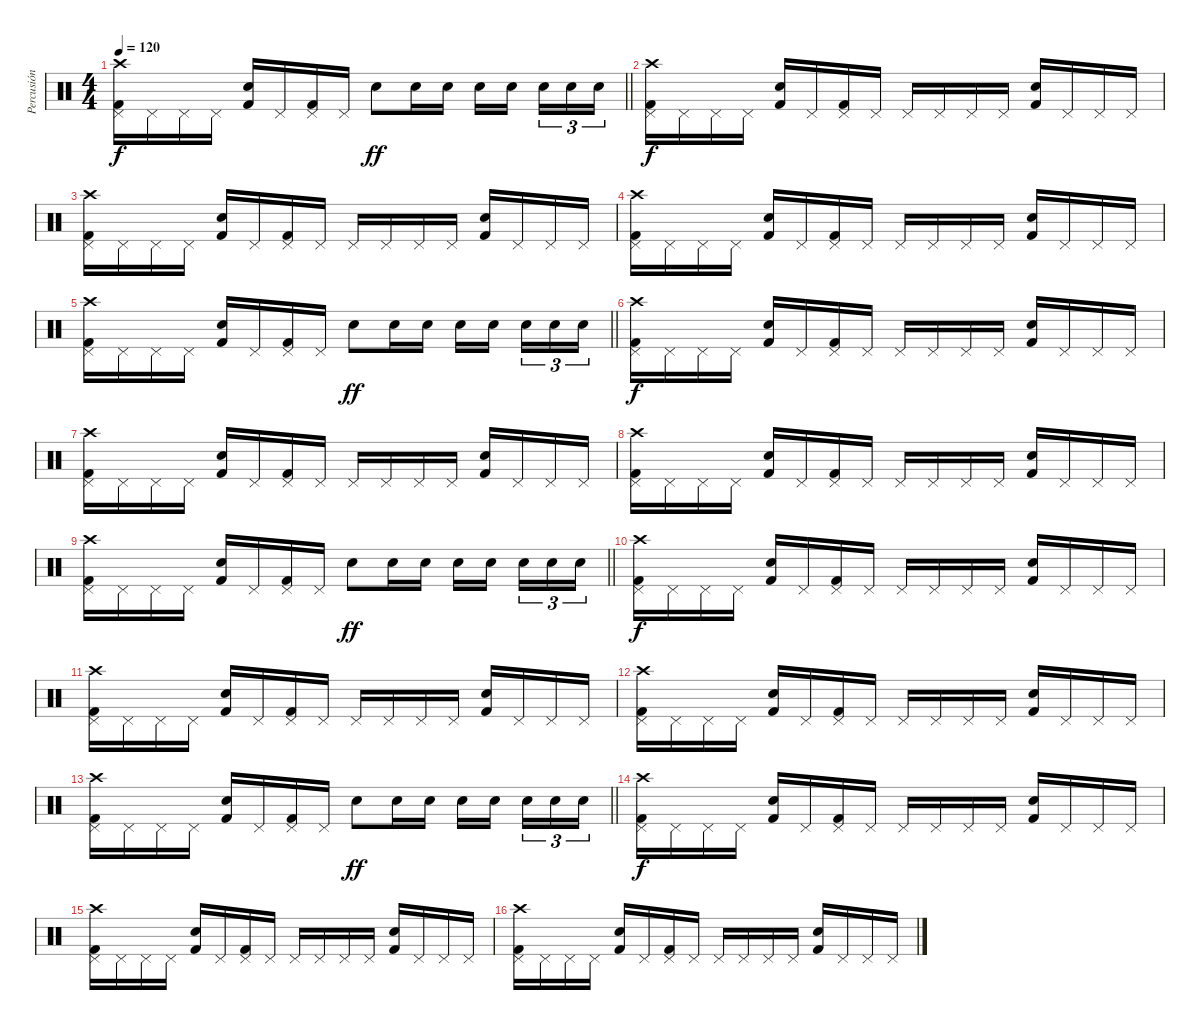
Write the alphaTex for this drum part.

\track ("Percusión" "Percusión") {instrument percussion}
\staff {score}
\articulation defaults
\ts (4 4)
\tempo 120
\clef neutral
\barLineRight lightlight
\ks c
("Pedal Hi-Hat (hit)" "Kick (hit) 2" "Crash high (hit)").16{dy f} "Pedal Hi-Hat (hit)".16 "Pedal Hi-Hat (hit)".16 "Pedal Hi-Hat (hit)".16 ("Snare (hit) 2" "Kick (hit) 2").16 "Pedal Hi-Hat (hit)".16 ("Pedal Hi-Hat (hit)" "Kick (hit) 2").16 "Pedal Hi-Hat (hit)".16 "Snare (hit) 2".8{dy ff} "Snare (hit) 2".16 "Snare (hit) 2".16 "Snare (hit) 2".16 "Snare (hit) 2".16{beam splitsecondary} "Snare (hit) 2".16{tu (3 2)} "Snare (hit) 2".16{tu (3 2)} "Snare (hit) 2".16{tu (3 2)} |
("Pedal Hi-Hat (hit)" "Kick (hit) 2" "Crash high (hit)").16{dy f} "Pedal Hi-Hat (hit)".16 "Pedal Hi-Hat (hit)".16 "Pedal Hi-Hat (hit)".16 ("Snare (hit) 2" "Kick (hit) 2").16 "Pedal Hi-Hat (hit)".16 ("Pedal Hi-Hat (hit)" "Kick (hit) 2").16 "Pedal Hi-Hat (hit)".16 "Pedal Hi-Hat (hit)".16 "Pedal Hi-Hat (hit)".16 "Pedal Hi-Hat (hit)".16 "Pedal Hi-Hat (hit)".16 ("Snare (hit) 2" "Kick (hit) 2").16 "Pedal Hi-Hat (hit)".16 "Pedal Hi-Hat (hit)".16 "Pedal Hi-Hat (hit)".16 |
("Pedal Hi-Hat (hit)" "Kick (hit) 2" "Crash high (hit)").16 "Pedal Hi-Hat (hit)".16 "Pedal Hi-Hat (hit)".16 "Pedal Hi-Hat (hit)".16 ("Snare (hit) 2" "Kick (hit) 2").16 "Pedal Hi-Hat (hit)".16 ("Pedal Hi-Hat (hit)" "Kick (hit) 2").16 "Pedal Hi-Hat (hit)".16 "Pedal Hi-Hat (hit)".16 "Pedal Hi-Hat (hit)".16 "Pedal Hi-Hat (hit)".16 "Pedal Hi-Hat (hit)".16 ("Snare (hit) 2" "Kick (hit) 2").16 "Pedal Hi-Hat (hit)".16 "Pedal Hi-Hat (hit)".16 "Pedal Hi-Hat (hit)".16 |
("Pedal Hi-Hat (hit)" "Kick (hit) 2" "Crash high (hit)").16 "Pedal Hi-Hat (hit)".16 "Pedal Hi-Hat (hit)".16 "Pedal Hi-Hat (hit)".16 ("Snare (hit) 2" "Kick (hit) 2").16 "Pedal Hi-Hat (hit)".16 ("Pedal Hi-Hat (hit)" "Kick (hit) 2").16 "Pedal Hi-Hat (hit)".16 "Pedal Hi-Hat (hit)".16 "Pedal Hi-Hat (hit)".16 "Pedal Hi-Hat (hit)".16 "Pedal Hi-Hat (hit)".16 ("Snare (hit) 2" "Kick (hit) 2").16 "Pedal Hi-Hat (hit)".16 "Pedal Hi-Hat (hit)".16 "Pedal Hi-Hat (hit)".16 |
\barLineRight lightlight
("Pedal Hi-Hat (hit)" "Kick (hit) 2" "Crash high (hit)").16 "Pedal Hi-Hat (hit)".16 "Pedal Hi-Hat (hit)".16 "Pedal Hi-Hat (hit)".16 ("Snare (hit) 2" "Kick (hit) 2").16 "Pedal Hi-Hat (hit)".16 ("Pedal Hi-Hat (hit)" "Kick (hit) 2").16 "Pedal Hi-Hat (hit)".16 "Snare (hit) 2".8{dy ff} "Snare (hit) 2".16 "Snare (hit) 2".16 "Snare (hit) 2".16 "Snare (hit) 2".16{beam splitsecondary} "Snare (hit) 2".16{tu (3 2)} "Snare (hit) 2".16{tu (3 2)} "Snare (hit) 2".16{tu (3 2)} |
("Pedal Hi-Hat (hit)" "Kick (hit) 2" "Crash high (hit)").16{dy f} "Pedal Hi-Hat (hit)".16 "Pedal Hi-Hat (hit)".16 "Pedal Hi-Hat (hit)".16 ("Snare (hit) 2" "Kick (hit) 2").16 "Pedal Hi-Hat (hit)".16 ("Pedal Hi-Hat (hit)" "Kick (hit) 2").16 "Pedal Hi-Hat (hit)".16 "Pedal Hi-Hat (hit)".16 "Pedal Hi-Hat (hit)".16 "Pedal Hi-Hat (hit)".16 "Pedal Hi-Hat (hit)".16 ("Snare (hit) 2" "Kick (hit) 2").16 "Pedal Hi-Hat (hit)".16 "Pedal Hi-Hat (hit)".16 "Pedal Hi-Hat (hit)".16 |
("Pedal Hi-Hat (hit)" "Kick (hit) 2" "Crash high (hit)").16 "Pedal Hi-Hat (hit)".16 "Pedal Hi-Hat (hit)".16 "Pedal Hi-Hat (hit)".16 ("Snare (hit) 2" "Kick (hit) 2").16 "Pedal Hi-Hat (hit)".16 ("Pedal Hi-Hat (hit)" "Kick (hit) 2").16 "Pedal Hi-Hat (hit)".16 "Pedal Hi-Hat (hit)".16 "Pedal Hi-Hat (hit)".16 "Pedal Hi-Hat (hit)".16 "Pedal Hi-Hat (hit)".16 ("Snare (hit) 2" "Kick (hit) 2").16 "Pedal Hi-Hat (hit)".16 "Pedal Hi-Hat (hit)".16 "Pedal Hi-Hat (hit)".16 |
("Pedal Hi-Hat (hit)" "Kick (hit) 2" "Crash high (hit)").16 "Pedal Hi-Hat (hit)".16 "Pedal Hi-Hat (hit)".16 "Pedal Hi-Hat (hit)".16 ("Snare (hit) 2" "Kick (hit) 2").16 "Pedal Hi-Hat (hit)".16 ("Pedal Hi-Hat (hit)" "Kick (hit) 2").16 "Pedal Hi-Hat (hit)".16 "Pedal Hi-Hat (hit)".16 "Pedal Hi-Hat (hit)".16 "Pedal Hi-Hat (hit)".16 "Pedal Hi-Hat (hit)".16 ("Snare (hit) 2" "Kick (hit) 2").16 "Pedal Hi-Hat (hit)".16 "Pedal Hi-Hat (hit)".16 "Pedal Hi-Hat (hit)".16 |
\barLineRight lightlight
("Pedal Hi-Hat (hit)" "Kick (hit) 2" "Crash high (hit)").16 "Pedal Hi-Hat (hit)".16 "Pedal Hi-Hat (hit)".16 "Pedal Hi-Hat (hit)".16 ("Snare (hit) 2" "Kick (hit) 2").16 "Pedal Hi-Hat (hit)".16 ("Pedal Hi-Hat (hit)" "Kick (hit) 2").16 "Pedal Hi-Hat (hit)".16 "Snare (hit) 2".8{dy ff} "Snare (hit) 2".16 "Snare (hit) 2".16 "Snare (hit) 2".16 "Snare (hit) 2".16{beam splitsecondary} "Snare (hit) 2".16{tu (3 2)} "Snare (hit) 2".16{tu (3 2)} "Snare (hit) 2".16{tu (3 2)} |
("Pedal Hi-Hat (hit)" "Kick (hit) 2" "Crash high (hit)").16{dy f} "Pedal Hi-Hat (hit)".16 "Pedal Hi-Hat (hit)".16 "Pedal Hi-Hat (hit)".16 ("Snare (hit) 2" "Kick (hit) 2").16 "Pedal Hi-Hat (hit)".16 ("Pedal Hi-Hat (hit)" "Kick (hit) 2").16 "Pedal Hi-Hat (hit)".16 "Pedal Hi-Hat (hit)".16 "Pedal Hi-Hat (hit)".16 "Pedal Hi-Hat (hit)".16 "Pedal Hi-Hat (hit)".16 ("Snare (hit) 2" "Kick (hit) 2").16 "Pedal Hi-Hat (hit)".16 "Pedal Hi-Hat (hit)".16 "Pedal Hi-Hat (hit)".16 |
("Pedal Hi-Hat (hit)" "Kick (hit) 2" "Crash high (hit)").16 "Pedal Hi-Hat (hit)".16 "Pedal Hi-Hat (hit)".16 "Pedal Hi-Hat (hit)".16 ("Snare (hit) 2" "Kick (hit) 2").16 "Pedal Hi-Hat (hit)".16 ("Pedal Hi-Hat (hit)" "Kick (hit) 2").16 "Pedal Hi-Hat (hit)".16 "Pedal Hi-Hat (hit)".16 "Pedal Hi-Hat (hit)".16 "Pedal Hi-Hat (hit)".16 "Pedal Hi-Hat (hit)".16 ("Snare (hit) 2" "Kick (hit) 2").16 "Pedal Hi-Hat (hit)".16 "Pedal Hi-Hat (hit)".16 "Pedal Hi-Hat (hit)".16 |
("Pedal Hi-Hat (hit)" "Kick (hit) 2" "Crash high (hit)").16 "Pedal Hi-Hat (hit)".16 "Pedal Hi-Hat (hit)".16 "Pedal Hi-Hat (hit)".16 ("Snare (hit) 2" "Kick (hit) 2").16 "Pedal Hi-Hat (hit)".16 ("Pedal Hi-Hat (hit)" "Kick (hit) 2").16 "Pedal Hi-Hat (hit)".16 "Pedal Hi-Hat (hit)".16 "Pedal Hi-Hat (hit)".16 "Pedal Hi-Hat (hit)".16 "Pedal Hi-Hat (hit)".16 ("Snare (hit) 2" "Kick (hit) 2").16 "Pedal Hi-Hat (hit)".16 "Pedal Hi-Hat (hit)".16 "Pedal Hi-Hat (hit)".16 |
\barLineRight lightlight
("Pedal Hi-Hat (hit)" "Kick (hit) 2" "Crash high (hit)").16 "Pedal Hi-Hat (hit)".16 "Pedal Hi-Hat (hit)".16 "Pedal Hi-Hat (hit)".16 ("Snare (hit) 2" "Kick (hit) 2").16 "Pedal Hi-Hat (hit)".16 ("Pedal Hi-Hat (hit)" "Kick (hit) 2").16 "Pedal Hi-Hat (hit)".16 "Snare (hit) 2".8{dy ff} "Snare (hit) 2".16 "Snare (hit) 2".16 "Snare (hit) 2".16 "Snare (hit) 2".16{beam splitsecondary} "Snare (hit) 2".16{tu (3 2)} "Snare (hit) 2".16{tu (3 2)} "Snare (hit) 2".16{tu (3 2)} |
("Pedal Hi-Hat (hit)" "Kick (hit) 2" "Crash high (hit)").16{dy f} "Pedal Hi-Hat (hit)".16 "Pedal Hi-Hat (hit)".16 "Pedal Hi-Hat (hit)".16 ("Snare (hit) 2" "Kick (hit) 2").16 "Pedal Hi-Hat (hit)".16 ("Pedal Hi-Hat (hit)" "Kick (hit) 2").16 "Pedal Hi-Hat (hit)".16 "Pedal Hi-Hat (hit)".16 "Pedal Hi-Hat (hit)".16 "Pedal Hi-Hat (hit)".16 "Pedal Hi-Hat (hit)".16 ("Snare (hit) 2" "Kick (hit) 2").16 "Pedal Hi-Hat (hit)".16 "Pedal Hi-Hat (hit)".16 "Pedal Hi-Hat (hit)".16 |
("Pedal Hi-Hat (hit)" "Kick (hit) 2" "Crash high (hit)").16 "Pedal Hi-Hat (hit)".16 "Pedal Hi-Hat (hit)".16 "Pedal Hi-Hat (hit)".16 ("Snare (hit) 2" "Kick (hit) 2").16 "Pedal Hi-Hat (hit)".16 ("Pedal Hi-Hat (hit)" "Kick (hit) 2").16 "Pedal Hi-Hat (hit)".16 "Pedal Hi-Hat (hit)".16 "Pedal Hi-Hat (hit)".16 "Pedal Hi-Hat (hit)".16 "Pedal Hi-Hat (hit)".16 ("Snare (hit) 2" "Kick (hit) 2").16 "Pedal Hi-Hat (hit)".16 "Pedal Hi-Hat (hit)".16 "Pedal Hi-Hat (hit)".16 |
("Pedal Hi-Hat (hit)" "Kick (hit) 2" "Crash high (hit)").16 "Pedal Hi-Hat (hit)".16 "Pedal Hi-Hat (hit)".16 "Pedal Hi-Hat (hit)".16 ("Snare (hit) 2" "Kick (hit) 2").16 "Pedal Hi-Hat (hit)".16 ("Pedal Hi-Hat (hit)" "Kick (hit) 2").16 "Pedal Hi-Hat (hit)".16 "Pedal Hi-Hat (hit)".16 "Pedal Hi-Hat (hit)".16 "Pedal Hi-Hat (hit)".16 "Pedal Hi-Hat (hit)".16 ("Snare (hit) 2" "Kick (hit) 2").16 "Pedal Hi-Hat (hit)".16 "Pedal Hi-Hat (hit)".16 "Pedal Hi-Hat (hit)".16
